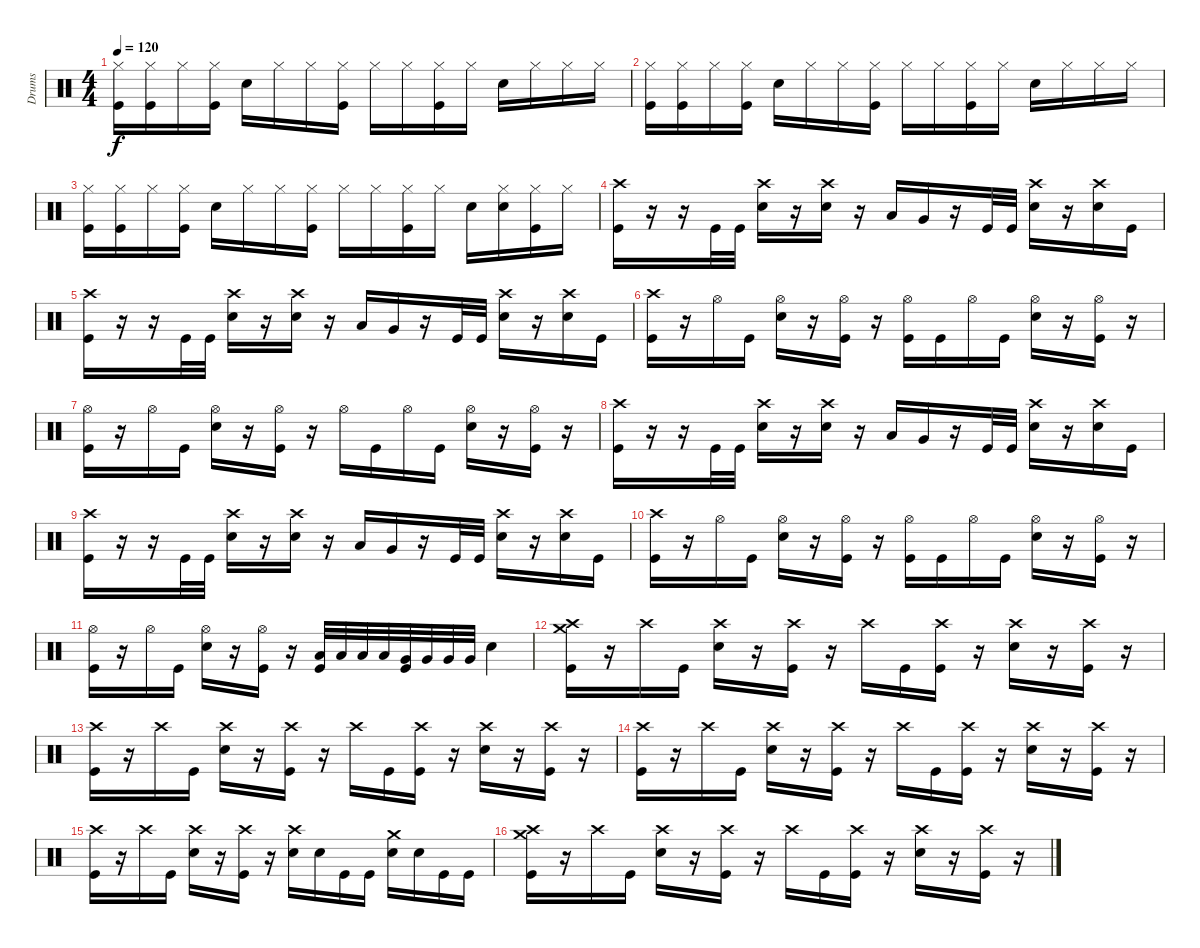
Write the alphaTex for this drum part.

\track ("Drums" "Drums") {instrument percussion}
\staff {score}
\articulation defaults
\ts (4 4)
\tempo 120
\clef neutral
\ks c
("Hi-Hat (closed)" "Kick (hit)").16{dy f} ("Hi-Hat (closed)" "Kick (hit)").16 "Hi-Hat (closed)".16 ("Hi-Hat (closed)" "Kick (hit)").16 "Snare (hit) 2".16 "Hi-Hat (closed)".16 "Hi-Hat (closed)".16 ("Hi-Hat (closed)" "Kick (hit)").16 "Hi-Hat (closed)".16 "Hi-Hat (closed)".16 ("Hi-Hat (closed)" "Kick (hit)").16 "Hi-Hat (closed)".16 "Snare (hit) 2".16 "Hi-Hat (closed)".16 "Hi-Hat (closed)".16 "Hi-Hat (closed)".16 |
("Hi-Hat (closed)" "Kick (hit)").16 ("Hi-Hat (closed)" "Kick (hit)").16 "Hi-Hat (closed)".16 ("Hi-Hat (closed)" "Kick (hit)").16 "Snare (hit) 2".16 "Hi-Hat (closed)".16 "Hi-Hat (closed)".16 ("Hi-Hat (closed)" "Kick (hit)").16 "Hi-Hat (closed)".16 "Hi-Hat (closed)".16 ("Hi-Hat (closed)" "Kick (hit)").16 "Hi-Hat (closed)".16 "Snare (hit) 2".16 "Hi-Hat (closed)".16 "Hi-Hat (closed)".16 "Hi-Hat (closed)".16 |
("Hi-Hat (closed)" "Kick (hit)").16 ("Hi-Hat (closed)" "Kick (hit)").16 "Hi-Hat (closed)".16 ("Hi-Hat (closed)" "Kick (hit)").16 "Snare (hit) 2".16 "Hi-Hat (closed)".16 "Hi-Hat (closed)".16 ("Hi-Hat (closed)" "Kick (hit)").16 "Hi-Hat (closed)".16 "Hi-Hat (closed)".16 ("Hi-Hat (closed)" "Kick (hit)").16 "Hi-Hat (closed)".16 "Snare (hit) 2".16 ("Hi-Hat (closed)" "Snare (hit) 2").16 ("Hi-Hat (closed)" "Kick (hit)").16 "Hi-Hat (closed)".16 |
("Crash high (hit)" "Kick (hit)").16 r.16 r.16 "Kick (hit)".32 "Kick (hit)".32 ("Crash high (hit)" "Snare (hit) 2").16 r.16 ("Crash high (hit)" "Snare (hit) 2").16 r.16 "Low Tom (hit)".16 "Very Low Tom (hit)".16 r.16 "Kick (hit)".32 "Kick (hit)".32 ("Crash high (hit)" "Snare (hit) 2").16 r.16 ("Crash high (hit)" "Snare (hit) 2").16 "Kick (hit)".16 |
("Crash high (hit)" "Kick (hit)").16 r.16 r.16 "Kick (hit)".32 "Kick (hit)".32 ("Crash high (hit)" "Snare (hit) 2").16 r.16 ("Crash high (hit)" "Snare (hit) 2").16 r.16 "Low Tom (hit)".16 "Very Low Tom (hit)".16 r.16 "Kick (hit)".32 "Kick (hit)".32 ("Crash high (hit)" "Snare (hit) 2").16 r.16 ("Crash high (hit)" "Snare (hit) 2").16 "Kick (hit)".16 |
("Crash high (hit)" "Kick (hit)").16 r.16 "Hi-Hat (open)".16 "Kick (hit)".16 ("Hi-Hat (open)" "Snare (hit) 2").16 r.16 ("Hi-Hat (open)" "Kick (hit)").16 r.16 ("Hi-Hat (open)" "Kick (hit)").16 "Kick (hit)".16 "Hi-Hat (open)".16 "Kick (hit)".16 ("Hi-Hat (open)" "Snare (hit) 2").16 r.16 ("Hi-Hat (open)" "Kick (hit)").16 r.16 |
("Hi-Hat (open)" "Kick (hit)").16 r.16 "Hi-Hat (open)".16 "Kick (hit)".16 ("Hi-Hat (open)" "Snare (hit) 2").16 r.16 ("Hi-Hat (open)" "Kick (hit)").16 r.16 "Hi-Hat (open)".16 "Kick (hit)".16 "Hi-Hat (open)".16 "Kick (hit)".16 ("Hi-Hat (open)" "Snare (hit) 2").16 r.16 ("Hi-Hat (open)" "Kick (hit)").16 r.16 |
("Crash high (hit)" "Kick (hit)").16 r.16 r.16 "Kick (hit)".32 "Kick (hit)".32 ("Crash high (hit)" "Snare (hit) 2").16 r.16 ("Crash high (hit)" "Snare (hit) 2").16 r.16 "Low Tom (hit)".16 "Very Low Tom (hit)".16 r.16 "Kick (hit)".32 "Kick (hit)".32 ("Crash high (hit)" "Snare (hit) 2").16 r.16 ("Crash high (hit)" "Snare (hit) 2").16 "Kick (hit)".16 |
("Crash high (hit)" "Kick (hit)").16 r.16 r.16 "Kick (hit)".32 "Kick (hit)".32 ("Crash high (hit)" "Snare (hit) 2").16 r.16 ("Crash high (hit)" "Snare (hit) 2").16 r.16 "Low Tom (hit)".16 "Very Low Tom (hit)".16 r.16 "Kick (hit)".32 "Kick (hit)".32 ("Crash high (hit)" "Snare (hit) 2").16 r.16 ("Crash high (hit)" "Snare (hit) 2").16 "Kick (hit)".16 |
("Crash high (hit)" "Kick (hit)").16 r.16 "Hi-Hat (open)".16 "Kick (hit)".16 ("Hi-Hat (open)" "Snare (hit) 2").16 r.16 ("Hi-Hat (open)" "Kick (hit)").16 r.16 ("Hi-Hat (open)" "Kick (hit)").16 "Kick (hit)".16 "Hi-Hat (open)".16 "Kick (hit)".16 ("Hi-Hat (open)" "Snare (hit) 2").16 r.16 ("Hi-Hat (open)" "Kick (hit)").16 r.16 |
("Hi-Hat (open)" "Kick (hit)").16 r.16 "Hi-Hat (open)".16 "Kick (hit)".16 ("Hi-Hat (open)" "Snare (hit) 2").16 r.16 ("Hi-Hat (open)" "Kick (hit)").16 r.16 ("Low Tom (hit)" "Kick (hit)").32 "Low Tom (hit)".32 "Low Tom (hit)".32 "Low Tom (hit)".32 ("Very Low Tom (hit)" "Kick (hit)").32 "Very Low Tom (hit)".32 "Very Low Tom (hit)".32 "Very Low Tom (hit)".32 "Snare (hit) 2".4 |
("Crash medium (hit)" "Crash high (hit)" "Kick (hit)").16 r.16 "Crash high (hit)".16 "Kick (hit)".16 ("Crash high (hit)" "Snare (hit) 2").16 r.16 ("Crash high (hit)" "Kick (hit)").16 r.16 "Crash high (hit)".16 "Kick (hit)".16 ("Crash high (hit)" "Kick (hit)").16 r.16 ("Crash high (hit)" "Snare (hit) 2").16 r.16 ("Crash high (hit)" "Kick (hit)").16 r.16 |
("Crash high (hit)" "Kick (hit)").16 r.16 "Crash high (hit)".16 "Kick (hit)".16 ("Crash high (hit)" "Snare (hit) 2").16 r.16 ("Crash high (hit)" "Kick (hit)").16 r.16 "Crash high (hit)".16 "Kick (hit)".16 ("Crash high (hit)" "Kick (hit)").16 r.16 ("Crash high (hit)" "Snare (hit) 2").16 r.16 ("Crash high (hit)" "Kick (hit)").16 r.16 |
("Crash high (hit)" "Kick (hit)").16 r.16 "Crash high (hit)".16 "Kick (hit)".16 ("Crash high (hit)" "Snare (hit) 2").16 r.16 ("Crash high (hit)" "Kick (hit)").16 r.16 "Crash high (hit)".16 "Kick (hit)".16 ("Crash high (hit)" "Kick (hit)").16 r.16 ("Crash high (hit)" "Snare (hit) 2").16 r.16 ("Crash high (hit)" "Kick (hit)").16 r.16 |
("Crash high (hit)" "Kick (hit)").16 r.16 "Crash high (hit)".16 "Kick (hit)".16 ("Crash high (hit)" "Snare (hit) 2").16 r.16 ("Crash high (hit)" "Kick (hit)").16 r.16 ("Crash high (hit)" "Snare (hit) 2").16 "Snare (hit) 2".16 "Kick (hit)".16 "Kick (hit)".16 ("Crash medium (hit)" "Snare (hit) 2").16 "Snare (hit) 2".16 "Kick (hit)".16 "Kick (hit)".16 |
("Crash medium (hit)" "Crash high (hit)" "Kick (hit)").16 r.16 "Crash high (hit)".16 "Kick (hit)".16 ("Crash high (hit)" "Snare (hit) 2").16 r.16 ("Crash high (hit)" "Kick (hit)").16 r.16 "Crash high (hit)".16 "Kick (hit)".16 ("Crash high (hit)" "Kick (hit)").16 r.16 ("Crash high (hit)" "Snare (hit) 2").16 r.16 ("Crash high (hit)" "Kick (hit)").16 r.16
